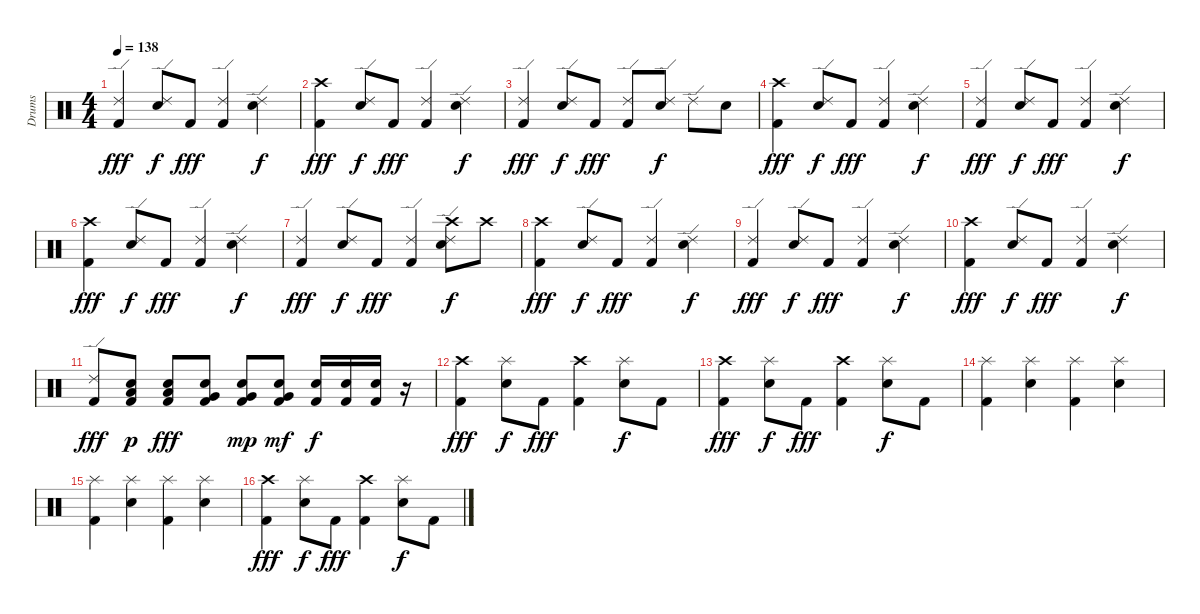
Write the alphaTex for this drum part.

\track ("Drums" "Drums") {instrument percussion}
\staff {score}
\articulation defaults
\ts (4 4)
\tempo 138
\clef neutral
\ks c
("Ride (edge) 2" "Kick (hit) 2").4{dy fff} ("Ride (edge) 2" "Snare (hit) 2").8{dy f} "Kick (hit) 2".8{dy fff} ("Ride (edge) 2" "Kick (hit) 2").4 ("Ride (edge) 2" "Snare (hit) 2").4{dy f} |
("Crash high (hit)" "Kick (hit) 2").4{dy fff} ("Ride (edge) 2" "Snare (hit) 2").8{dy f} "Kick (hit) 2".8{dy fff} ("Ride (edge) 2" "Kick (hit) 2").4 ("Ride (edge) 2" "Snare (hit) 2").4{dy f} |
("Ride (edge) 2" "Kick (hit) 2").4{dy fff} ("Ride (edge) 2" "Snare (hit) 2").8{dy f} "Kick (hit) 2".8{dy fff} ("Ride (edge) 2" "Kick (hit) 2").8 ("Ride (edge) 2" "Snare (hit) 2").8{dy f} "Ride (edge) 2".8 "Snare (hit) 2"{tr (38 32)}.8 |
("Crash high (hit)" "Kick (hit) 2").4{dy fff} ("Ride (edge) 2" "Snare (hit) 2").8{dy f} "Kick (hit) 2".8{dy fff} ("Ride (edge) 2" "Kick (hit) 2").4 ("Ride (edge) 2" "Snare (hit) 2").4{dy f} |
("Ride (edge) 2" "Kick (hit) 2").4{dy fff} ("Ride (edge) 2" "Snare (hit) 2").8{dy f} "Kick (hit) 2".8{dy fff} ("Ride (edge) 2" "Kick (hit) 2").4 ("Ride (edge) 2" "Snare (hit) 2").4{dy f} |
("Crash high (hit)" "Kick (hit) 2").4{dy fff} ("Ride (edge) 2" "Snare (hit) 2").8{dy f} "Kick (hit) 2".8{dy fff} ("Ride (edge) 2" "Kick (hit) 2").4 ("Ride (edge) 2" "Snare (hit) 2").4{dy f} |
("Ride (edge) 2" "Kick (hit) 2").4{dy fff} ("Ride (edge) 2" "Snare (hit) 2").8{dy f} "Kick (hit) 2".8{dy fff} ("Ride (edge) 2" "Kick (hit) 2").4 ("Crash high (hit)" "Ride (edge) 2" "Snare (hit) 2").8{dy f} "Crash high (hit)".8 |
("Crash high (hit)" "Kick (hit) 2").4{dy fff} ("Ride (edge) 2" "Snare (hit) 2").8{dy f} "Kick (hit) 2".8{dy fff} ("Ride (edge) 2" "Kick (hit) 2").4 ("Ride (edge) 2" "Snare (hit) 2").4{dy f} |
("Ride (edge) 2" "Kick (hit) 2").4{dy fff} ("Ride (edge) 2" "Snare (hit) 2").8{dy f} "Kick (hit) 2".8{dy fff} ("Ride (edge) 2" "Kick (hit) 2").4 ("Ride (edge) 2" "Snare (hit) 2").4{dy f} |
("Crash high (hit)" "Kick (hit) 2").4{dy fff} ("Ride (edge) 2" "Snare (hit) 2").8{dy f} "Kick (hit) 2".8{dy fff} ("Ride (edge) 2" "Kick (hit) 2").4 ("Ride (edge) 2" "Snare (hit) 2").4{dy f} |
("Ride (edge) 2" "Kick (hit) 2").8{dy fff} ("Snare (hit) 2" "Low Floor Tom (hit)" "Kick (hit) 2").8{dy p} ("Snare (hit) 2" "Low Floor Tom (hit)" "Kick (hit) 2").8{dy fff} ("Snare (hit) 2" "Very Low Tom (hit)" "Kick (hit) 2").8 ("Snare (hit) 2" "Very Low Tom (hit)" "Kick (hit) 2").8{dy mp} ("Snare (hit) 2" "Very Low Tom (hit)" "Kick (hit) 2").8{dy mf} ("Snare (hit) 2" "Kick (hit) 2").16{dy f} ("Snare (hit) 2" "Kick (hit) 2").16 ("Snare (hit) 2" "Kick (hit) 2").16 r.16 |
("Crash high (hit)" "Kick (hit) 2").4{dy fff} ("Splash (hit)" "Snare (hit) 2").8{dy f} "Kick (hit) 2".8{dy fff} ("Crash high (hit)" "Kick (hit) 2").4 ("Splash (hit)" "Snare (hit) 2").8{dy f} "Kick (hit) 2".8 |
("Crash high (hit)" "Kick (hit) 2").4{dy fff} ("Splash (hit)" "Snare (hit) 2").8{dy f} "Kick (hit) 2".8{dy fff} ("Crash high (hit)" "Kick (hit) 2").4 ("Splash (hit)" "Snare (hit) 2").8{dy f} "Kick (hit) 2".8 |
("Splash (hit)" "Kick (hit) 2").4 ("Splash (hit)" "Snare (hit) 2").4 ("Splash (hit)" "Kick (hit) 2").4 ("Splash (hit)" "Snare (hit) 2").4 |
("Splash (hit)" "Kick (hit) 2").4 ("Splash (hit)" "Snare (hit) 2").4 ("Splash (hit)" "Kick (hit) 2").4 ("Splash (hit)" "Snare (hit) 2").4 |
("Crash high (hit)" "Kick (hit) 2").4{dy fff} ("Splash (hit)" "Snare (hit) 2").8{dy f} "Kick (hit) 2".8{dy fff} ("Crash high (hit)" "Kick (hit) 2").4 ("Splash (hit)" "Snare (hit) 2").8{dy f} "Kick (hit) 2".8
